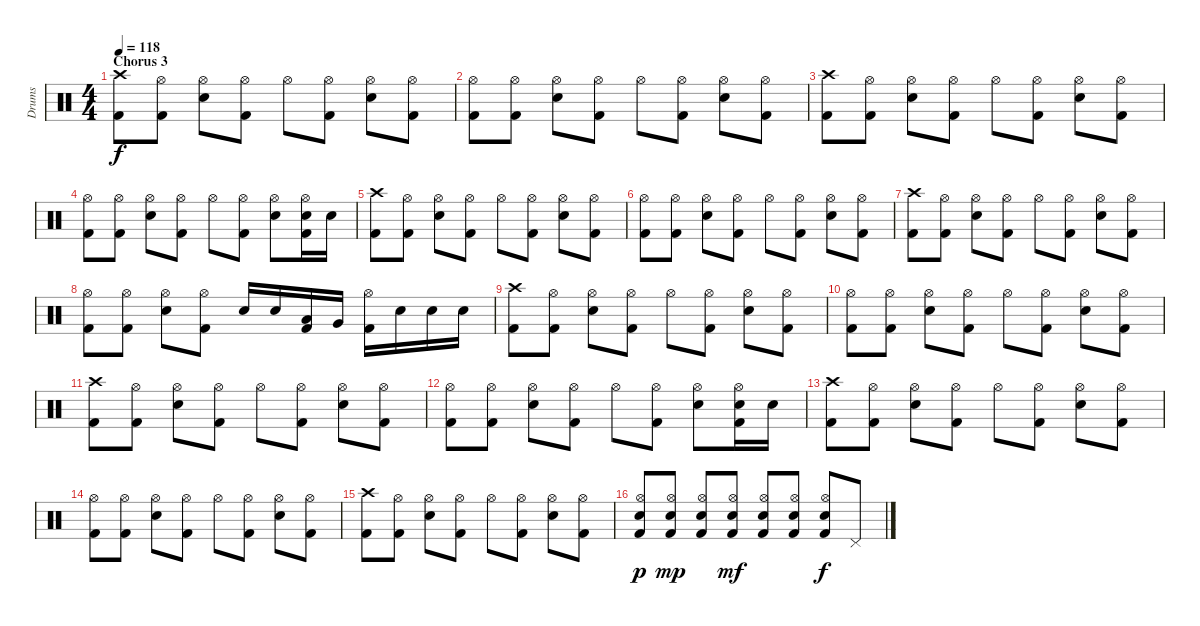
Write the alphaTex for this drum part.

\track ("Drums" "Drums") {instrument percussion}
\staff {score}
\articulation defaults
\ts (4 4)
\section ("" "Chorus 3")
\tempo 118
\clef neutral
\ks c
("Crash high (hit)" "Kick (hit) 2").8{dy f} ("Hi-Hat (open)" "Kick (hit) 2").8 ("Hi-Hat (open)" "Electric Snare (hit)").8 ("Hi-Hat (open)" "Kick (hit) 2").8 "Hi-Hat (open)".8 ("Hi-Hat (open)" "Kick (hit) 2").8 ("Hi-Hat (open)" "Electric Snare (hit)").8 ("Hi-Hat (open)" "Kick (hit) 2").8 |
("Hi-Hat (open)" "Kick (hit) 2").8 ("Hi-Hat (open)" "Kick (hit) 2").8 ("Hi-Hat (open)" "Electric Snare (hit)").8 ("Hi-Hat (open)" "Kick (hit) 2").8 "Hi-Hat (open)".8 ("Hi-Hat (open)" "Kick (hit) 2").8 ("Hi-Hat (open)" "Electric Snare (hit)").8 ("Hi-Hat (open)" "Kick (hit) 2").8 |
("Crash high (hit)" "Kick (hit) 2").8 ("Hi-Hat (open)" "Kick (hit) 2").8 ("Hi-Hat (open)" "Electric Snare (hit)").8 ("Hi-Hat (open)" "Kick (hit) 2").8 "Hi-Hat (open)".8 ("Hi-Hat (open)" "Kick (hit) 2").8 ("Hi-Hat (open)" "Electric Snare (hit)").8 ("Hi-Hat (open)" "Kick (hit) 2").8 |
("Hi-Hat (open)" "Kick (hit) 2").8 ("Hi-Hat (open)" "Kick (hit) 2").8 ("Hi-Hat (open)" "Electric Snare (hit)").8 ("Hi-Hat (open)" "Kick (hit) 2").8 "Hi-Hat (open)".8 ("Hi-Hat (open)" "Kick (hit) 2").8 ("Hi-Hat (open)" "Electric Snare (hit)").8 ("Hi-Hat (open)" "Electric Snare (hit)" "Kick (hit) 2").16 "Electric Snare (hit)".16 |
("Crash high (hit)" "Kick (hit) 2").8 ("Hi-Hat (open)" "Kick (hit) 2").8 ("Hi-Hat (open)" "Electric Snare (hit)").8 ("Hi-Hat (open)" "Kick (hit) 2").8 "Hi-Hat (open)".8 ("Hi-Hat (open)" "Kick (hit) 2").8 ("Hi-Hat (open)" "Electric Snare (hit)").8 ("Hi-Hat (open)" "Kick (hit) 2").8 |
("Hi-Hat (open)" "Kick (hit) 2").8 ("Hi-Hat (open)" "Kick (hit) 2").8 ("Hi-Hat (open)" "Electric Snare (hit)").8 ("Hi-Hat (open)" "Kick (hit) 2").8 "Hi-Hat (open)".8 ("Hi-Hat (open)" "Kick (hit) 2").8 ("Hi-Hat (open)" "Electric Snare (hit)").8 ("Hi-Hat (open)" "Kick (hit) 2").8 |
("Crash high (hit)" "Kick (hit) 2").8 ("Hi-Hat (open)" "Kick (hit) 2").8 ("Hi-Hat (open)" "Electric Snare (hit)").8 ("Hi-Hat (open)" "Kick (hit) 2").8 "Hi-Hat (open)".8 ("Hi-Hat (open)" "Kick (hit) 2").8 ("Hi-Hat (open)" "Electric Snare (hit)").8 ("Hi-Hat (open)" "Kick (hit) 2").8 |
("Hi-Hat (open)" "Kick (hit) 2").8 ("Hi-Hat (open)" "Kick (hit) 2").8 ("Hi-Hat (open)" "Electric Snare (hit)").8 ("Hi-Hat (open)" "Kick (hit) 2").8 "Electric Snare (hit)".16 "Electric Snare (hit)".16 ("Low Tom (hit)" "Kick (hit) 2").16 "Very Low Tom (hit)".16 ("Hi-Hat (open)" "Kick (hit) 2").16 "Electric Snare (hit)".16 "Electric Snare (hit)".16 "Electric Snare (hit)".16 |
("Crash high (hit)" "Kick (hit) 2").8 ("Hi-Hat (open)" "Kick (hit) 2").8 ("Hi-Hat (open)" "Electric Snare (hit)").8 ("Hi-Hat (open)" "Kick (hit) 2").8 "Hi-Hat (open)".8 ("Hi-Hat (open)" "Kick (hit) 2").8 ("Hi-Hat (open)" "Electric Snare (hit)").8 ("Hi-Hat (open)" "Kick (hit) 2").8 |
("Hi-Hat (open)" "Kick (hit) 2").8 ("Hi-Hat (open)" "Kick (hit) 2").8 ("Hi-Hat (open)" "Electric Snare (hit)").8 ("Hi-Hat (open)" "Kick (hit) 2").8 "Hi-Hat (open)".8 ("Hi-Hat (open)" "Kick (hit) 2").8 ("Hi-Hat (open)" "Electric Snare (hit)").8 ("Hi-Hat (open)" "Kick (hit) 2").8 |
("Crash high (hit)" "Kick (hit) 2").8 ("Hi-Hat (open)" "Kick (hit) 2").8 ("Hi-Hat (open)" "Electric Snare (hit)").8 ("Hi-Hat (open)" "Kick (hit) 2").8 "Hi-Hat (open)".8 ("Hi-Hat (open)" "Kick (hit) 2").8 ("Hi-Hat (open)" "Electric Snare (hit)").8 ("Hi-Hat (open)" "Kick (hit) 2").8 |
("Hi-Hat (open)" "Kick (hit) 2").8 ("Hi-Hat (open)" "Kick (hit) 2").8 ("Hi-Hat (open)" "Electric Snare (hit)").8 ("Hi-Hat (open)" "Kick (hit) 2").8 "Hi-Hat (open)".8 ("Hi-Hat (open)" "Kick (hit) 2").8 ("Hi-Hat (open)" "Electric Snare (hit)").8 ("Hi-Hat (open)" "Electric Snare (hit)" "Kick (hit) 2").16 "Electric Snare (hit)".16 |
("Crash high (hit)" "Kick (hit) 2").8 ("Hi-Hat (open)" "Kick (hit) 2").8 ("Hi-Hat (open)" "Electric Snare (hit)").8 ("Hi-Hat (open)" "Kick (hit) 2").8 "Hi-Hat (open)".8 ("Hi-Hat (open)" "Kick (hit) 2").8 ("Hi-Hat (open)" "Electric Snare (hit)").8 ("Hi-Hat (open)" "Kick (hit) 2").8 |
("Hi-Hat (open)" "Kick (hit) 2").8 ("Hi-Hat (open)" "Kick (hit) 2").8 ("Hi-Hat (open)" "Electric Snare (hit)").8 ("Hi-Hat (open)" "Kick (hit) 2").8 "Hi-Hat (open)".8 ("Hi-Hat (open)" "Kick (hit) 2").8 ("Hi-Hat (open)" "Electric Snare (hit)").8 ("Hi-Hat (open)" "Kick (hit) 2").8 |
("Crash high (hit)" "Kick (hit) 2").8 ("Hi-Hat (open)" "Kick (hit) 2").8 ("Hi-Hat (open)" "Electric Snare (hit)").8 ("Hi-Hat (open)" "Kick (hit) 2").8 "Hi-Hat (open)".8 ("Hi-Hat (open)" "Kick (hit) 2").8 ("Hi-Hat (open)" "Electric Snare (hit)").8 ("Hi-Hat (open)" "Kick (hit) 2").8 |
("Hi-Hat (open)" "Snare (hit) 2" "Kick (hit) 2").8{dy p} ("Hi-Hat (open)" "Snare (hit) 2" "Kick (hit) 2").8{dy mp} ("Hi-Hat (open)" "Snare (hit) 2" "Kick (hit) 2").8 ("Hi-Hat (open)" "Snare (hit) 2" "Kick (hit) 2").8{dy mf} ("Hi-Hat (open)" "Snare (hit) 2" "Kick (hit) 2").8 ("Hi-Hat (open)" "Snare (hit) 2" "Kick (hit) 2").8 ("Hi-Hat (open)" "Snare (hit) 2" "Kick (hit) 2").8{dy f} "Pedal Hi-Hat (hit)".8
